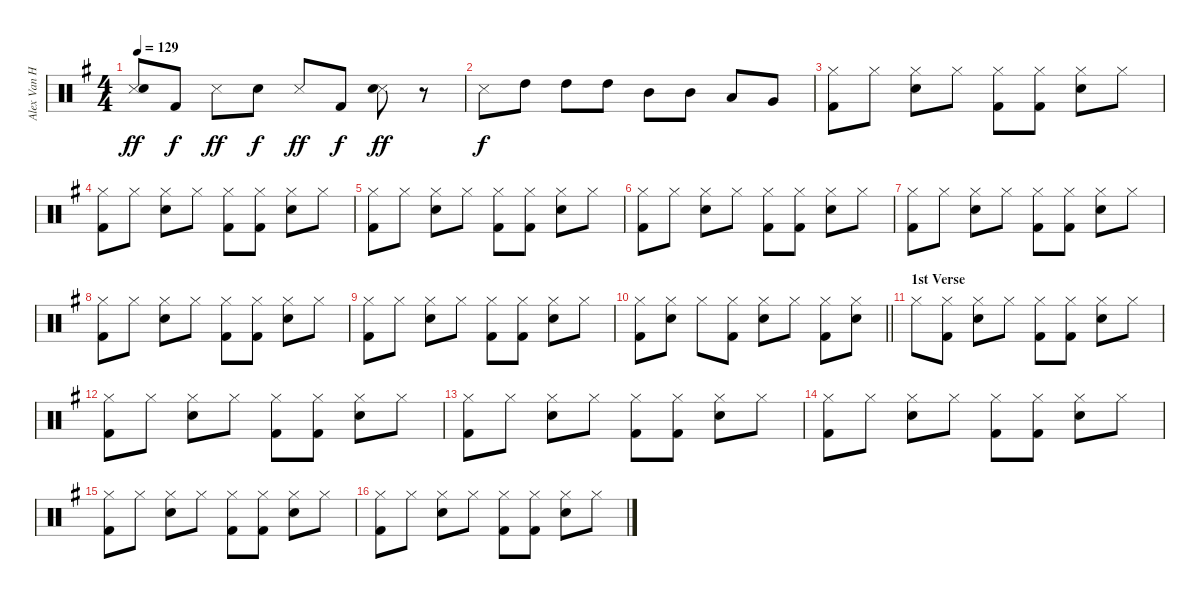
\track ("Alex Van Halen" "Alex Van H") {instrument percussion}
\staff {score}
\articulation defaults
\ts (4 4)
\tempo 129
\clef neutral
\ks eminor
("Snare (side stick) 3" "Snare (hit) 2").8{dy ff} "Kick (hit) 2".8{dy f} "Snare (side stick) 3".8{dy ff} "Snare (hit) 2".8{dy f} "Snare (side stick) 3".8{dy ff} "Kick (hit) 2".8{dy f} ("Snare (side stick) 3" "Snare (hit) 2").8{dy ff} r.8 |
"Snare (side stick) 3".8{dy f} "High Tom (hit)".8 "High Tom (hit)".8 "High Tom (hit)".8 "Mid Tom (hit)".8 "Mid Tom (hit)".8 "Low Tom (hit)".8 "Very Low Tom (hit)".8 |
("Hi-Hat (closed)" "Kick (hit) 2").8 "Hi-Hat (closed)".8 ("Hi-Hat (closed)" "Snare (hit) 2").8 "Hi-Hat (closed)".8 ("Hi-Hat (closed)" "Kick (hit) 2").8 ("Hi-Hat (closed)" "Kick (hit) 2").8 ("Hi-Hat (closed)" "Snare (hit) 2").8 "Hi-Hat (closed)".8 |
("Hi-Hat (closed)" "Kick (hit) 2").8 "Hi-Hat (closed)".8 ("Hi-Hat (closed)" "Snare (hit) 2").8 "Hi-Hat (closed)".8 ("Hi-Hat (closed)" "Kick (hit) 2").8 ("Hi-Hat (closed)" "Kick (hit) 2").8 ("Hi-Hat (closed)" "Snare (hit) 2").8 "Hi-Hat (closed)".8 |
("Hi-Hat (closed)" "Kick (hit) 2").8 "Hi-Hat (closed)".8 ("Hi-Hat (closed)" "Snare (hit) 2").8 "Hi-Hat (closed)".8 ("Hi-Hat (closed)" "Kick (hit) 2").8 ("Hi-Hat (closed)" "Kick (hit) 2").8 ("Hi-Hat (closed)" "Snare (hit) 2").8 "Hi-Hat (closed)".8 |
("Hi-Hat (closed)" "Kick (hit) 2").8 "Hi-Hat (closed)".8 ("Hi-Hat (closed)" "Snare (hit) 2").8 "Hi-Hat (closed)".8 ("Hi-Hat (closed)" "Kick (hit) 2").8 ("Hi-Hat (closed)" "Kick (hit) 2").8 ("Hi-Hat (closed)" "Snare (hit) 2").8 "Hi-Hat (closed)".8 |
("Hi-Hat (closed)" "Kick (hit) 2").8 "Hi-Hat (closed)".8 ("Hi-Hat (closed)" "Snare (hit) 2").8 "Hi-Hat (closed)".8 ("Hi-Hat (closed)" "Kick (hit) 2").8 ("Hi-Hat (closed)" "Kick (hit) 2").8 ("Hi-Hat (closed)" "Snare (hit) 2").8 "Hi-Hat (closed)".8 |
("Hi-Hat (closed)" "Kick (hit) 2").8 "Hi-Hat (closed)".8 ("Hi-Hat (closed)" "Snare (hit) 2").8 "Hi-Hat (closed)".8 ("Hi-Hat (closed)" "Kick (hit) 2").8 ("Hi-Hat (closed)" "Kick (hit) 2").8 ("Hi-Hat (closed)" "Snare (hit) 2").8 "Hi-Hat (closed)".8 |
("Hi-Hat (closed)" "Kick (hit) 2").8 "Hi-Hat (closed)".8 ("Hi-Hat (closed)" "Snare (hit) 2").8 "Hi-Hat (closed)".8 ("Hi-Hat (closed)" "Kick (hit) 2").8 ("Hi-Hat (closed)" "Kick (hit) 2").8 ("Hi-Hat (closed)" "Snare (hit) 2").8 "Hi-Hat (closed)".8 |
\barLineRight lightlight
("Hi-Hat (closed)" "Kick (hit) 2").8 ("Hi-Hat (closed)" "Snare (hit) 2").8 "Hi-Hat (closed)".8 ("Hi-Hat (closed)" "Kick (hit) 2").8 ("Hi-Hat (closed)" "Snare (hit) 2").8 "Hi-Hat (closed)".8 ("Hi-Hat (closed)" "Kick (hit) 2").8 ("Hi-Hat (closed)" "Snare (hit) 2").8 |
\section ("" "1st Verse")
"Hi-Hat (closed)".8 ("Hi-Hat (closed)" "Kick (hit) 2").8 ("Hi-Hat (closed)" "Snare (hit) 2").8 "Hi-Hat (closed)".8 ("Hi-Hat (closed)" "Kick (hit) 2").8 ("Hi-Hat (closed)" "Kick (hit) 2").8 ("Hi-Hat (closed)" "Snare (hit) 2").8 "Hi-Hat (closed)".8 |
("Hi-Hat (closed)" "Kick (hit) 2").8 "Hi-Hat (closed)".8 ("Hi-Hat (closed)" "Snare (hit) 2").8 "Hi-Hat (closed)".8 ("Hi-Hat (closed)" "Kick (hit) 2").8 ("Hi-Hat (closed)" "Kick (hit) 2").8 ("Hi-Hat (closed)" "Snare (hit) 2").8 "Hi-Hat (closed)".8 |
("Hi-Hat (closed)" "Kick (hit) 2").8 "Hi-Hat (closed)".8 ("Hi-Hat (closed)" "Snare (hit) 2").8 "Hi-Hat (closed)".8 ("Hi-Hat (closed)" "Kick (hit) 2").8 ("Hi-Hat (closed)" "Kick (hit) 2").8 ("Hi-Hat (closed)" "Snare (hit) 2").8 "Hi-Hat (closed)".8 |
("Hi-Hat (closed)" "Kick (hit) 2").8 "Hi-Hat (closed)".8 ("Hi-Hat (closed)" "Snare (hit) 2").8 "Hi-Hat (closed)".8 ("Hi-Hat (closed)" "Kick (hit) 2").8 ("Hi-Hat (closed)" "Kick (hit) 2").8 ("Hi-Hat (closed)" "Snare (hit) 2").8 "Hi-Hat (closed)".8 |
("Hi-Hat (closed)" "Kick (hit) 2").8 "Hi-Hat (closed)".8 ("Hi-Hat (closed)" "Snare (hit) 2").8 "Hi-Hat (closed)".8 ("Hi-Hat (closed)" "Kick (hit) 2").8 ("Hi-Hat (closed)" "Kick (hit) 2").8 ("Hi-Hat (closed)" "Snare (hit) 2").8 "Hi-Hat (closed)".8 |
("Hi-Hat (closed)" "Kick (hit) 2").8 "Hi-Hat (closed)".8 ("Hi-Hat (closed)" "Snare (hit) 2").8 "Hi-Hat (closed)".8 ("Hi-Hat (closed)" "Kick (hit) 2").8 ("Hi-Hat (closed)" "Kick (hit) 2").8 ("Hi-Hat (closed)" "Snare (hit) 2").8 "Hi-Hat (closed)".8
